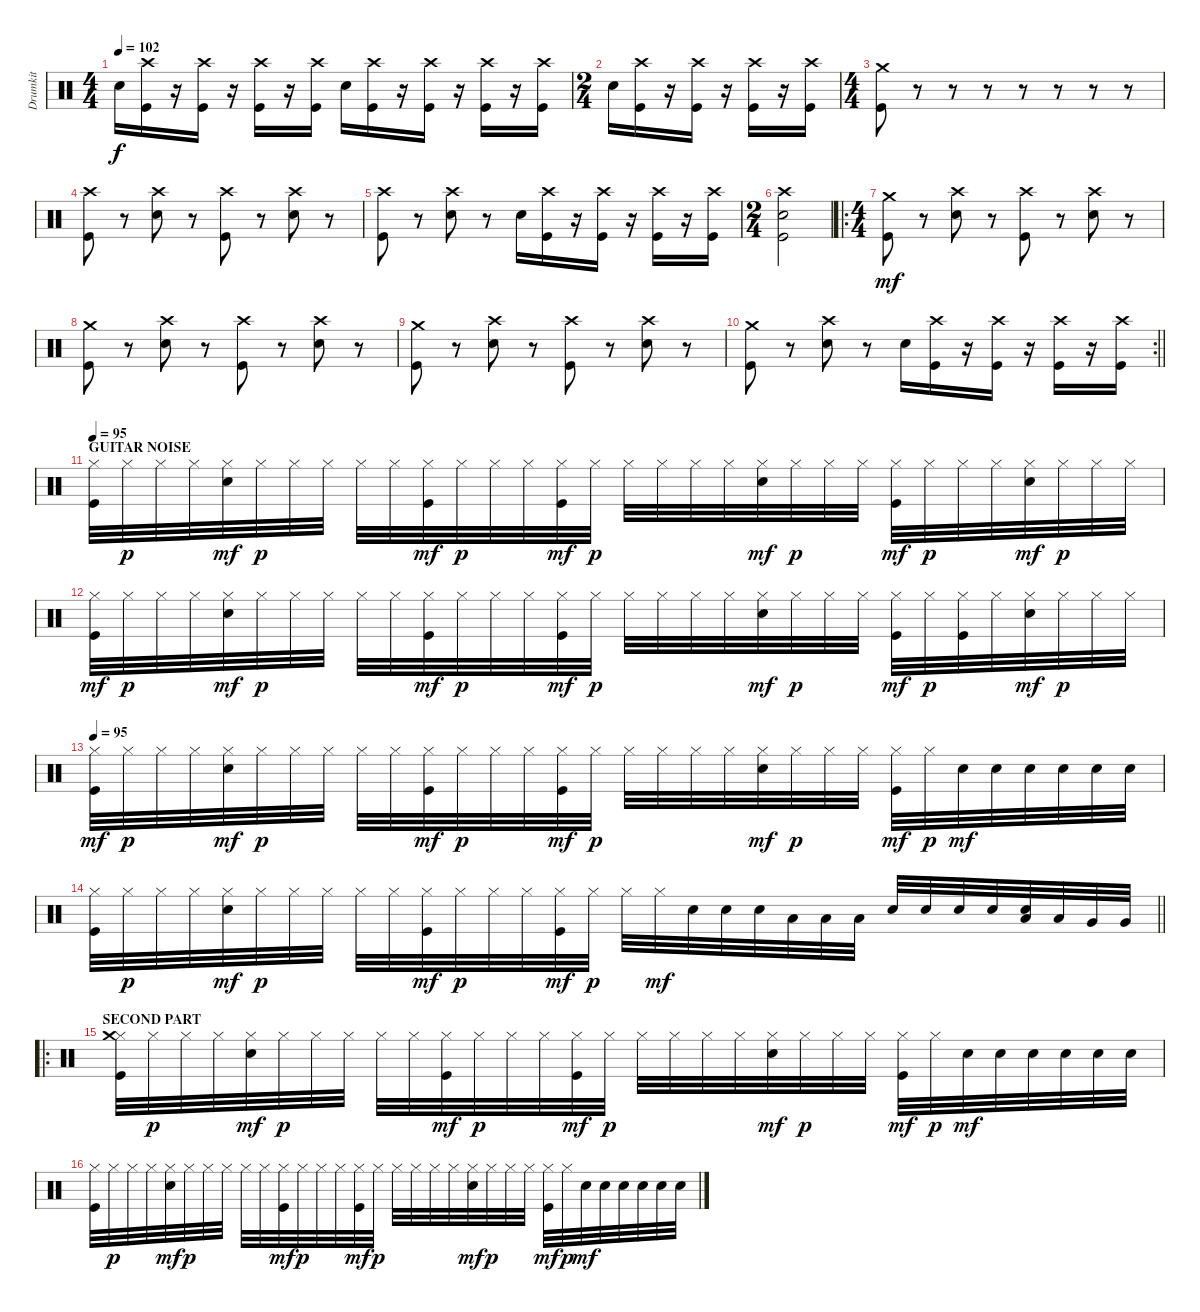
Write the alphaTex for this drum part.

\track ("Drumkit" "Drumkit") {instrument percussion}
\staff {score}
\articulation defaults
\ts (4 4)
\tempo 102
\clef neutral
\ks c "Snare (hit) 2".16{dy f}
("Kick (hit)" "Crash high (hit)").16 r.16 ("Kick (hit)" "Crash high (hit)").16 r.16 ("Kick (hit)" "Crash high (hit)").16 r.16 ("Kick (hit)" "Crash high (hit)").16 "Snare (hit) 2".16 ("Kick (hit)" "Crash high (hit)").16 r.16 ("Kick (hit)" "Crash high (hit)").16 r.16 ("Kick (hit)" "Crash high (hit)").16 r.16 ("Kick (hit)" "Crash high (hit)").16 |
\ts (2 4)
"Snare (hit) 2".16 ("Kick (hit)" "Crash high (hit)").16 r.16 ("Kick (hit)" "Crash high (hit)").16 r.16 ("Kick (hit)" "Crash high (hit)").16 r.16 ("Kick (hit)" "Crash high (hit)").16 |
\ts (4 4)
("Kick (hit)" "Crash medium (hit)").8 r.8 r.8 r.8 r.8 r.8 r.8 r.8 |
("Kick (hit)" "Crash high (hit)").8 r.8 ("Snare (hit) 2" "Crash high (hit)").8 r.8 ("Crash high (hit)" "Kick (hit)").8 r.8 ("Crash high (hit)" "Snare (hit) 2").8 r.8 |
("Kick (hit)" "Crash high (hit)").8 r.8 ("Snare (hit) 2" "Crash high (hit)").8 r.8 "Snare (hit) 2".16 ("Kick (hit)" "Crash high (hit)").16 r.16 ("Kick (hit)" "Crash high (hit)").16 r.16 ("Kick (hit)" "Crash high (hit)").16 r.16 ("Kick (hit)" "Crash high (hit)").16 |
\ts (2 4)
("Snare (hit) 2" "Kick (hit)" "Crash high (hit)").2 |
\ro
\ts (4 4)
("Kick (hit)" "Crash medium (hit)").8{dy mf} r.8 ("Snare (hit) 2" "Crash high (hit)").8 r.8 ("Crash high (hit)" "Kick (hit)").8 r.8 ("Crash high (hit)" "Snare (hit) 2").8 r.8 |
("Kick (hit)" "Crash medium (hit)").8 r.8 ("Snare (hit) 2" "Crash high (hit)").8 r.8 ("Crash high (hit)" "Kick (hit)").8 r.8 ("Crash high (hit)" "Snare (hit) 2").8 r.8 |
("Kick (hit)" "Crash medium (hit)").8 r.8 ("Snare (hit) 2" "Crash high (hit)").8 r.8 ("Crash high (hit)" "Kick (hit)").8 r.8 ("Crash high (hit)" "Snare (hit) 2").8 r.8 |
\rc 2
\barLineRight lightlight
("Kick (hit)" "Crash medium (hit)").8 r.8 ("Snare (hit) 2" "Crash high (hit)").8 r.8 "Snare (hit) 2".16 ("Kick (hit)" "Crash high (hit)").16 r.16 ("Kick (hit)" "Crash high (hit)").16 r.16 ("Kick (hit)" "Crash high (hit)").16 r.16 ("Kick (hit)" "Crash high (hit)").16 |
\section ("" "GUITAR NOISE")
\tempo 95
("Hi-Hat (closed)" "Kick (hit)").32 "Hi-Hat (closed)".32{dy p} "Hi-Hat (closed)".32 "Hi-Hat (closed)".32 ("Hi-Hat (closed)" "Snare (hit) 2").32{dy mf} "Hi-Hat (closed)".32{dy p} "Hi-Hat (closed)".32 "Hi-Hat (closed)".32 "Hi-Hat (closed)".32 "Hi-Hat (closed)".32 ("Hi-Hat (closed)" "Kick (hit)").32{dy mf} "Hi-Hat (closed)".32{dy p} "Hi-Hat (closed)".32 "Hi-Hat (closed)".32 ("Hi-Hat (closed)" "Kick (hit)").32{dy mf} "Hi-Hat (closed)".32{dy p} "Hi-Hat (closed)".32 "Hi-Hat (closed)".32 "Hi-Hat (closed)".32 "Hi-Hat (closed)".32 ("Hi-Hat (closed)" "Snare (hit) 2").32{dy mf} "Hi-Hat (closed)".32{dy p} "Hi-Hat (closed)".32 "Hi-Hat (closed)".32 ("Hi-Hat (closed)" "Kick (hit)").32{dy mf} "Hi-Hat (closed)".32{dy p} "Hi-Hat (closed)".32 "Hi-Hat (closed)".32 ("Hi-Hat (closed)" "Snare (hit) 2").32{dy mf} "Hi-Hat (closed)".32{dy p} "Hi-Hat (closed)".32 "Hi-Hat (closed)".32 |
("Hi-Hat (closed)" "Kick (hit)").32{dy mf} "Hi-Hat (closed)".32{dy p} "Hi-Hat (closed)".32 "Hi-Hat (closed)".32 ("Hi-Hat (closed)" "Snare (hit) 2").32{dy mf} "Hi-Hat (closed)".32{dy p} "Hi-Hat (closed)".32 "Hi-Hat (closed)".32 "Hi-Hat (closed)".32 "Hi-Hat (closed)".32 ("Hi-Hat (closed)" "Kick (hit)").32{dy mf} "Hi-Hat (closed)".32{dy p} "Hi-Hat (closed)".32 "Hi-Hat (closed)".32 ("Hi-Hat (closed)" "Kick (hit)").32{dy mf} "Hi-Hat (closed)".32{dy p} "Hi-Hat (closed)".32 "Hi-Hat (closed)".32 "Hi-Hat (closed)".32 "Hi-Hat (closed)".32 ("Hi-Hat (closed)" "Snare (hit) 2").32{dy mf} "Hi-Hat (closed)".32{dy p} "Hi-Hat (closed)".32 "Hi-Hat (closed)".32 ("Hi-Hat (closed)" "Kick (hit)").32{dy mf} "Hi-Hat (closed)".32{dy p} ("Hi-Hat (closed)" "Kick (hit)").32 "Hi-Hat (closed)".32 ("Hi-Hat (closed)" "Snare (hit) 2").32{dy mf} "Hi-Hat (closed)".32{dy p} "Hi-Hat (closed)".32 "Hi-Hat (closed)".32 |
\tempo 95
("Hi-Hat (closed)" "Kick (hit)").32{dy mf} "Hi-Hat (closed)".32{dy p} "Hi-Hat (closed)".32 "Hi-Hat (closed)".32 ("Hi-Hat (closed)" "Snare (hit) 2").32{dy mf} "Hi-Hat (closed)".32{dy p} "Hi-Hat (closed)".32 "Hi-Hat (closed)".32 "Hi-Hat (closed)".32 "Hi-Hat (closed)".32 ("Hi-Hat (closed)" "Kick (hit)").32{dy mf} "Hi-Hat (closed)".32{dy p} "Hi-Hat (closed)".32 "Hi-Hat (closed)".32 ("Hi-Hat (closed)" "Kick (hit)").32{dy mf} "Hi-Hat (closed)".32{dy p} "Hi-Hat (closed)".32 "Hi-Hat (closed)".32 "Hi-Hat (closed)".32 "Hi-Hat (closed)".32 ("Hi-Hat (closed)" "Snare (hit) 2").32{dy mf} "Hi-Hat (closed)".32{dy p} "Hi-Hat (closed)".32 "Hi-Hat (closed)".32 ("Hi-Hat (closed)" "Kick (hit)").32{dy mf} "Hi-Hat (closed)".32{dy p} "Snare (hit) 2".32{dy mf} "Snare (hit) 2".32 "Snare (hit) 2".32 "Snare (hit) 2".32 "Snare (hit) 2".32 "Snare (hit) 2".32 |
\barLineRight lightlight
("Hi-Hat (closed)" "Kick (hit)").32 "Hi-Hat (closed)".32{dy p} "Hi-Hat (closed)".32 "Hi-Hat (closed)".32 ("Hi-Hat (closed)" "Snare (hit) 2").32{dy mf} "Hi-Hat (closed)".32{dy p} "Hi-Hat (closed)".32 "Hi-Hat (closed)".32 "Hi-Hat (closed)".32 "Hi-Hat (closed)".32 ("Hi-Hat (closed)" "Kick (hit)").32{dy mf} "Hi-Hat (closed)".32{dy p} "Hi-Hat (closed)".32 "Hi-Hat (closed)".32 ("Hi-Hat (closed)" "Kick (hit)").32{dy mf} "Hi-Hat (closed)".32{dy p} "Hi-Hat (closed)".32 "Hi-Hat (closed)".32{dy mf} "Snare (hit) 2".32 "Snare (hit) 2".32 "Snare (hit) 2".32 "Low Tom (hit)".32 "Low Tom (hit)".32 "Low Tom (hit)".32 "Snare (hit) 2".32 "Snare (hit) 2".32 "Snare (hit) 2".32 "Snare (hit) 2".32 ("Snare (hit) 2" "Low Tom (hit)").32 "Low Tom (hit)".32 "Very Low Tom (hit)".32 "Very Low Tom (hit)".32 |
\ro
\section ("" "SECOND PART")
("Hi-Hat (closed)" "Kick (hit)" "Crash medium (hit)").32 "Hi-Hat (closed)".32{dy p} "Hi-Hat (closed)".32 "Hi-Hat (closed)".32 ("Hi-Hat (closed)" "Snare (hit) 2").32{dy mf} "Hi-Hat (closed)".32{dy p} "Hi-Hat (closed)".32 "Hi-Hat (closed)".32 "Hi-Hat (closed)".32 "Hi-Hat (closed)".32 ("Hi-Hat (closed)" "Kick (hit)").32{dy mf} "Hi-Hat (closed)".32{dy p} "Hi-Hat (closed)".32 "Hi-Hat (closed)".32 ("Hi-Hat (closed)" "Kick (hit)").32{dy mf} "Hi-Hat (closed)".32{dy p} "Hi-Hat (closed)".32 "Hi-Hat (closed)".32 "Hi-Hat (closed)".32 "Hi-Hat (closed)".32 ("Hi-Hat (closed)" "Snare (hit) 2").32{dy mf} "Hi-Hat (closed)".32{dy p} "Hi-Hat (closed)".32 "Hi-Hat (closed)".32 ("Hi-Hat (closed)" "Kick (hit)").32{dy mf} "Hi-Hat (closed)".32{dy p} "Snare (hit) 2".32{dy mf} "Snare (hit) 2".32 "Snare (hit) 2".32 "Snare (hit) 2".32 "Snare (hit) 2".32 "Snare (hit) 2".32 |
("Hi-Hat (closed)" "Kick (hit)").32 "Hi-Hat (closed)".32{dy p} "Hi-Hat (closed)".32 "Hi-Hat (closed)".32 ("Hi-Hat (closed)" "Snare (hit) 2").32{dy mf} "Hi-Hat (closed)".32{dy p} "Hi-Hat (closed)".32 "Hi-Hat (closed)".32 "Hi-Hat (closed)".32 "Hi-Hat (closed)".32 ("Hi-Hat (closed)" "Kick (hit)").32{dy mf} "Hi-Hat (closed)".32{dy p} "Hi-Hat (closed)".32 "Hi-Hat (closed)".32 ("Hi-Hat (closed)" "Kick (hit)").32{dy mf} "Hi-Hat (closed)".32{dy p} "Hi-Hat (closed)".32 "Hi-Hat (closed)".32 "Hi-Hat (closed)".32 "Hi-Hat (closed)".32 ("Hi-Hat (closed)" "Snare (hit) 2").32{dy mf} "Hi-Hat (closed)".32{dy p} "Hi-Hat (closed)".32 "Hi-Hat (closed)".32 ("Hi-Hat (closed)" "Kick (hit)").32{dy mf} "Hi-Hat (closed)".32{dy p} "Snare (hit) 2".32{dy mf} "Snare (hit) 2".32 "Snare (hit) 2".32 "Snare (hit) 2".32 "Snare (hit) 2".32 "Snare (hit) 2".32
